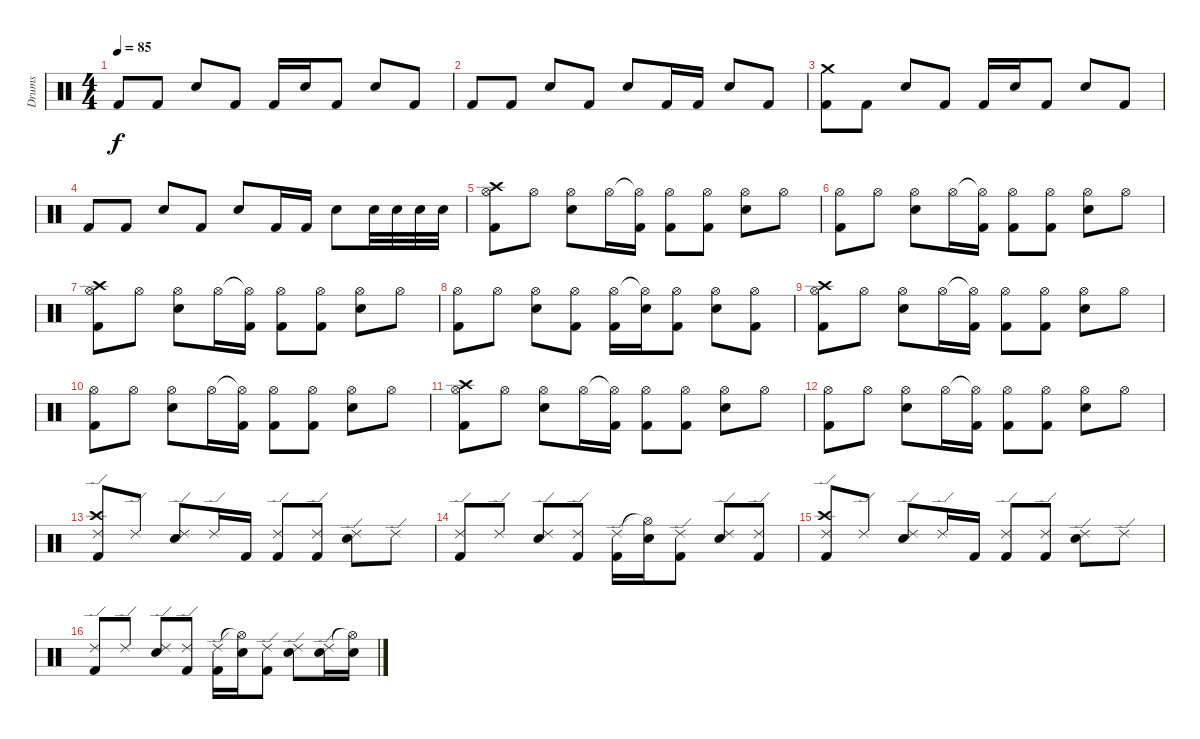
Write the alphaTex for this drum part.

\track ("Drums" "Drums") {instrument percussion}
\staff {score}
\articulation defaults
\ts (4 4)
\tempo 85
\clef neutral
\ks c "Kick (hit) 2".8{dy f} "Kick (hit) 2".8 "Snare (hit) 2".8 "Kick (hit) 2".8 "Kick (hit) 2".16 "Snare (hit) 2".16 "Kick (hit) 2".8 "Snare (hit) 2".8 "Kick (hit) 2".8
|
"Kick (hit) 2".8 "Kick (hit) 2".8 "Snare (hit) 2".8 "Kick (hit) 2".8 "Snare (hit) 2".8 "Kick (hit) 2".16 "Kick (hit) 2".16 "Snare (hit) 2".8 "Kick (hit) 2".8 |
("Crash medium (hit)" "Kick (hit) 2").8 "Kick (hit) 2".8 "Snare (hit) 2".8 "Kick (hit) 2".8 "Kick (hit) 2".16 "Snare (hit) 2".16 "Kick (hit) 2".8 "Snare (hit) 2".8 "Kick (hit) 2".8 |
"Kick (hit) 2".8 "Kick (hit) 2".8 "Snare (hit) 2".8 "Kick (hit) 2".8 "Snare (hit) 2".8 "Kick (hit) 2".16 "Kick (hit) 2".16 "Snare (hit) 2".8 "Electric Snare (hit)".32 "Electric Snare (hit)".32 "Electric Snare (hit)".32 "Electric Snare (hit)".32 |
("Hi-Hat (open)" "Crash high (hit)" "Kick (hit) 2").8 "Hi-Hat (open)".8 ("Hi-Hat (open)" "Snare (hit) 2").8 "Hi-Hat (open)".16 ("Hi-Hat (open)"{t} "Kick (hit) 2").16 ("Hi-Hat (open)" "Kick (hit) 2").8 ("Hi-Hat (open)" "Kick (hit) 2").8 ("Hi-Hat (open)" "Snare (hit) 2").8 "Hi-Hat (open)".8 |
("Hi-Hat (open)" "Kick (hit) 2").8 "Hi-Hat (open)".8 ("Hi-Hat (open)" "Snare (hit) 2").8 "Hi-Hat (open)".16 ("Hi-Hat (open)"{t} "Kick (hit) 2").16 ("Hi-Hat (open)" "Kick (hit) 2").8 ("Hi-Hat (open)" "Kick (hit) 2").8 ("Hi-Hat (open)" "Snare (hit) 2").8 "Hi-Hat (open)".8 |
("Hi-Hat (open)" "Crash high (hit)" "Kick (hit) 2").8 "Hi-Hat (open)".8 ("Hi-Hat (open)" "Snare (hit) 2").8 "Hi-Hat (open)".16 ("Hi-Hat (open)"{t} "Kick (hit) 2").16 ("Hi-Hat (open)" "Kick (hit) 2").8 ("Hi-Hat (open)" "Kick (hit) 2").8 ("Hi-Hat (open)" "Snare (hit) 2").8 "Hi-Hat (open)".8 |
("Hi-Hat (open)" "Kick (hit) 2").8 "Hi-Hat (open)".8 ("Hi-Hat (open)" "Snare (hit) 2").8 ("Hi-Hat (open)" "Kick (hit) 2").8 ("Hi-Hat (open)" "Kick (hit) 2").16 ("Hi-Hat (open)"{t} "Snare (hit) 2").16 ("Hi-Hat (open)" "Kick (hit) 2").8 ("Hi-Hat (open)" "Snare (hit) 2").8 ("Hi-Hat (open)" "Kick (hit) 2").8 |
("Hi-Hat (open)" "Crash high (hit)" "Kick (hit) 2").8 "Hi-Hat (open)".8 ("Hi-Hat (open)" "Snare (hit) 2").8 "Hi-Hat (open)".16 ("Hi-Hat (open)"{t} "Kick (hit) 2").16 ("Hi-Hat (open)" "Kick (hit) 2").8 ("Hi-Hat (open)" "Kick (hit) 2").8 ("Hi-Hat (open)" "Snare (hit) 2").8 "Hi-Hat (open)".8 |
("Hi-Hat (open)" "Kick (hit) 2").8 "Hi-Hat (open)".8 ("Hi-Hat (open)" "Snare (hit) 2").8 "Hi-Hat (open)".16 ("Hi-Hat (open)"{t} "Kick (hit) 2").16 ("Hi-Hat (open)" "Kick (hit) 2").8 ("Hi-Hat (open)" "Kick (hit) 2").8 ("Hi-Hat (open)" "Snare (hit) 2").8 "Hi-Hat (open)".8 |
("Hi-Hat (open)" "Crash high (hit)" "Kick (hit) 2").8 "Hi-Hat (open)".8 ("Hi-Hat (open)" "Snare (hit) 2").8 "Hi-Hat (open)".16 ("Hi-Hat (open)"{t} "Kick (hit) 2").16 ("Hi-Hat (open)" "Kick (hit) 2").8 ("Hi-Hat (open)" "Kick (hit) 2").8 ("Hi-Hat (open)" "Snare (hit) 2").8 "Hi-Hat (open)".8 |
("Hi-Hat (open)" "Kick (hit) 2").8 "Hi-Hat (open)".8 ("Hi-Hat (open)" "Snare (hit) 2").8 "Hi-Hat (open)".16 ("Hi-Hat (open)"{t} "Kick (hit) 2").16 ("Hi-Hat (open)" "Kick (hit) 2").8 ("Hi-Hat (open)" "Kick (hit) 2").8 ("Hi-Hat (open)" "Snare (hit) 2").8 "Hi-Hat (open)".8 |
("Ride (edge) 2" "Crash high (hit)" "Kick (hit) 2").8 "Ride (edge) 2".8 ("Ride (edge) 2" "Snare (hit) 2").8 "Ride (edge) 2".16 "Kick (hit) 2".16 ("Ride (edge) 2" "Kick (hit) 2").8 ("Ride (edge) 2" "Kick (hit) 2").8 ("Ride (edge) 2" "Snare (hit) 2").8 "Ride (edge) 2".8 |
("Ride (edge) 2" "Kick (hit) 2").8 "Ride (edge) 2".8 ("Ride (edge) 2" "Snare (hit) 2").8 ("Ride (edge) 2" "Kick (hit) 2").8 ("Ride (edge) 2" "Kick (hit) 2").16 ("Hi-Hat (open)"{t} "Snare (hit) 2").16 ("Ride (edge) 2" "Kick (hit) 2").8 ("Ride (edge) 2" "Snare (hit) 2").8 ("Ride (edge) 2" "Kick (hit) 2").8 |
("Ride (edge) 2" "Crash high (hit)" "Kick (hit) 2").8 "Ride (edge) 2".8 ("Ride (edge) 2" "Snare (hit) 2").8 "Ride (edge) 2".16 "Kick (hit) 2".16 ("Ride (edge) 2" "Kick (hit) 2").8 ("Ride (edge) 2" "Kick (hit) 2").8 ("Ride (edge) 2" "Snare (hit) 2").8 "Ride (edge) 2".8 |
("Ride (edge) 2" "Kick (hit) 2").8 "Ride (edge) 2".8 ("Ride (edge) 2" "Snare (hit) 2").8 ("Ride (edge) 2" "Kick (hit) 2").8 ("Ride (edge) 2" "Kick (hit) 2").16 ("Hi-Hat (open)"{t} "Snare (hit) 2").16 ("Ride (edge) 2" "Kick (hit) 2").8 ("Ride (edge) 2" "Snare (hit) 2").8 ("Ride (edge) 2" "Snare (hit) 2").16 ("Hi-Hat (open)"{t} "Snare (hit) 2").16
